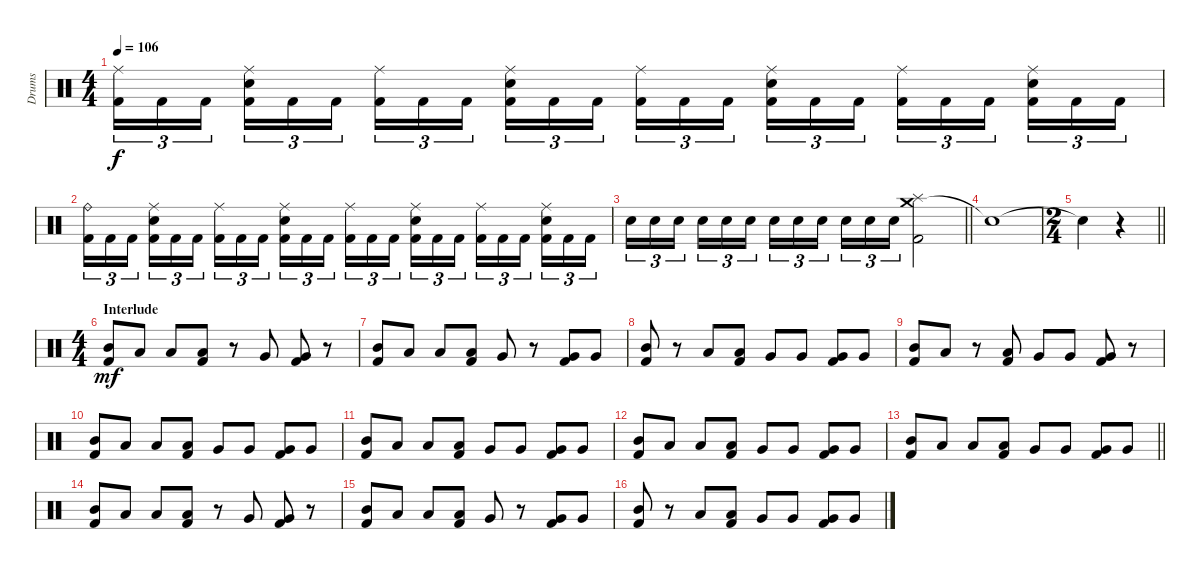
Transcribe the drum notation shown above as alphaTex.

\track ("Drums" "Drums") {instrument percussion}
\staff {score}
\articulation defaults
\ts (4 4)
\tempo 106
\clef neutral
\ks c
("Ride (middle)" "Kick (hit) 2").16{tu (3 2) dy f} "Kick (hit) 2".16{tu (3 2)} "Kick (hit) 2".16{tu (3 2)} ("Ride (middle)" "Electric Snare (hit)" "Kick (hit) 2").16{tu (3 2)} "Kick (hit) 2".16{tu (3 2)} "Kick (hit) 2".16{tu (3 2)} ("Ride (middle)" "Kick (hit) 2").16{tu (3 2)} "Kick (hit) 2".16{tu (3 2)} "Kick (hit) 2".16{tu (3 2)} ("Ride (middle)" "Electric Snare (hit)" "Kick (hit) 2").16{tu (3 2)} "Kick (hit) 2".16{tu (3 2)} "Kick (hit) 2".16{tu (3 2)} ("Ride (middle)" "Kick (hit) 2").16{tu (3 2)} "Kick (hit) 2".16{tu (3 2)} "Kick (hit) 2".16{tu (3 2)} ("Ride (middle)" "Electric Snare (hit)" "Kick (hit) 2").16{tu (3 2)} "Kick (hit) 2".16{tu (3 2)} "Kick (hit) 2".16{tu (3 2)} ("Ride (middle)" "Kick (hit) 2").16{tu (3 2)} "Kick (hit) 2".16{tu (3 2)} "Kick (hit) 2".16{tu (3 2)} ("Ride (middle)" "Electric Snare (hit)" "Kick (hit) 2").16{tu (3 2)} "Kick (hit) 2".16{tu (3 2)} "Kick (hit) 2".16{tu (3 2)} |
("Ride (bell)" "Kick (hit) 2").16{tu (3 2)} "Kick (hit) 2".16{tu (3 2)} "Kick (hit) 2".16{tu (3 2)} ("Ride (middle)" "Electric Snare (hit)" "Kick (hit) 2").16{tu (3 2)} "Kick (hit) 2".16{tu (3 2)} "Kick (hit) 2".16{tu (3 2)} ("Ride (middle)" "Kick (hit) 2").16{tu (3 2)} "Kick (hit) 2".16{tu (3 2)} "Kick (hit) 2".16{tu (3 2)} ("Ride (middle)" "Electric Snare (hit)" "Kick (hit) 2").16{tu (3 2)} "Kick (hit) 2".16{tu (3 2)} "Kick (hit) 2".16{tu (3 2)} ("Ride (middle)" "Kick (hit) 2").16{tu (3 2)} "Kick (hit) 2".16{tu (3 2)} "Kick (hit) 2".16{tu (3 2)} ("Ride (middle)" "Electric Snare (hit)" "Kick (hit) 2").16{tu (3 2)} "Kick (hit) 2".16{tu (3 2)} "Kick (hit) 2".16{tu (3 2)} ("Ride (middle)" "Kick (hit) 2").16{tu (3 2)} "Kick (hit) 2".16{tu (3 2)} "Kick (hit) 2".16{tu (3 2)} ("Ride (middle)" "Electric Snare (hit)" "Kick (hit) 2").16{tu (3 2)} "Kick (hit) 2".16{tu (3 2)} "Kick (hit) 2".16{tu (3 2)} |
\barLineRight lightlight "Electric Snare (hit)".16{tu (3 2)} "Electric Snare (hit)".16{tu (3 2)} "Electric Snare (hit)".16{tu (3 2)} "Electric Snare (hit)".16{tu (3 2)} "Electric Snare (hit)".16{tu (3 2)} "Electric Snare (hit)".16{tu (3 2)} "Electric Snare (hit)".16{tu (3 2)} "Electric Snare (hit)".16{tu (3 2)} "Electric Snare (hit)".16{tu (3 2)} "Electric Snare (hit)".16{tu (3 2)} "Electric Snare (hit)".16{tu (3 2)} "Electric Snare (hit)".16{tu (3 2)}
("Crash medium (hit)" "Splash (hit)" "Kick (hit) 2").2 |
"Snare (hit)"{t}.1 |
\ts (2 4)
\barLineRight lightlight "Snare (hit)"{t}.4
r.4 |
\ts (4 4)
\section ("" "Interlude")
("Mid Tom (hit)" "Kick (hit) 2").8{dy mf} "Low Tom (hit)".8 "Low Tom (hit)".8 ("Low Tom (hit)" "Kick (hit) 2").8 r.8 "Very Low Tom (hit)".8 ("Very Low Tom (hit)" "Kick (hit) 2").8 r.8 |
("Mid Tom (hit)" "Kick (hit) 2").8 "Low Tom (hit)".8 "Low Tom (hit)".8 ("Low Tom (hit)" "Kick (hit) 2").8 "Very Low Tom (hit)".8 r.8 ("Very Low Tom (hit)" "Kick (hit) 2").8 "Very Low Tom (hit)".8 |
("Mid Tom (hit)" "Kick (hit) 2").8 r.8 "Low Tom (hit)".8 ("Low Tom (hit)" "Kick (hit) 2").8 "Very Low Tom (hit)".8 "Very Low Tom (hit)".8 ("Very Low Tom (hit)" "Kick (hit) 2").8 "Very Low Tom (hit)".8 |
("Mid Tom (hit)" "Kick (hit) 2").8 "Low Tom (hit)".8 r.8 ("Low Tom (hit)" "Kick (hit) 2").8 "Very Low Tom (hit)".8 "Very Low Tom (hit)".8 ("Very Low Tom (hit)" "Kick (hit) 2").8 r.8 |
("Mid Tom (hit)" "Kick (hit) 2").8 "Low Tom (hit)".8 "Low Tom (hit)".8 ("Low Tom (hit)" "Kick (hit) 2").8 "Very Low Tom (hit)".8 "Very Low Tom (hit)".8 ("Very Low Tom (hit)" "Kick (hit) 2").8 "Very Low Tom (hit)".8 |
("Mid Tom (hit)" "Kick (hit) 2").8 "Low Tom (hit)".8 "Low Tom (hit)".8 ("Low Tom (hit)" "Kick (hit) 2").8 "Very Low Tom (hit)".8 "Very Low Tom (hit)".8 ("Very Low Tom (hit)" "Kick (hit) 2").8 "Very Low Tom (hit)".8 |
("Mid Tom (hit)" "Kick (hit) 2").8 "Low Tom (hit)".8 "Low Tom (hit)".8 ("Low Tom (hit)" "Kick (hit) 2").8 "Very Low Tom (hit)".8 "Very Low Tom (hit)".8 ("Very Low Tom (hit)" "Kick (hit) 2").8 "Very Low Tom (hit)".8 |
\barLineRight lightlight
("Mid Tom (hit)" "Kick (hit) 2").8 "Low Tom (hit)".8 "Low Tom (hit)".8 ("Low Tom (hit)" "Kick (hit) 2").8 "Very Low Tom (hit)".8 "Very Low Tom (hit)".8 ("Very Low Tom (hit)" "Kick (hit) 2").8 "Very Low Tom (hit)".8 |
("Mid Tom (hit)" "Kick (hit) 2").8 "Low Tom (hit)".8 "Low Tom (hit)".8 ("Low Tom (hit)" "Kick (hit) 2").8 r.8 "Very Low Tom (hit)".8 ("Very Low Tom (hit)" "Kick (hit) 2").8 r.8 |
("Mid Tom (hit)" "Kick (hit) 2").8 "Low Tom (hit)".8 "Low Tom (hit)".8 ("Low Tom (hit)" "Kick (hit) 2").8 "Very Low Tom (hit)".8 r.8 ("Very Low Tom (hit)" "Kick (hit) 2").8 "Very Low Tom (hit)".8 |
("Mid Tom (hit)" "Kick (hit) 2").8 r.8 "Low Tom (hit)".8 ("Low Tom (hit)" "Kick (hit) 2").8 "Very Low Tom (hit)".8 "Very Low Tom (hit)".8 ("Very Low Tom (hit)" "Kick (hit) 2").8 "Very Low Tom (hit)".8
